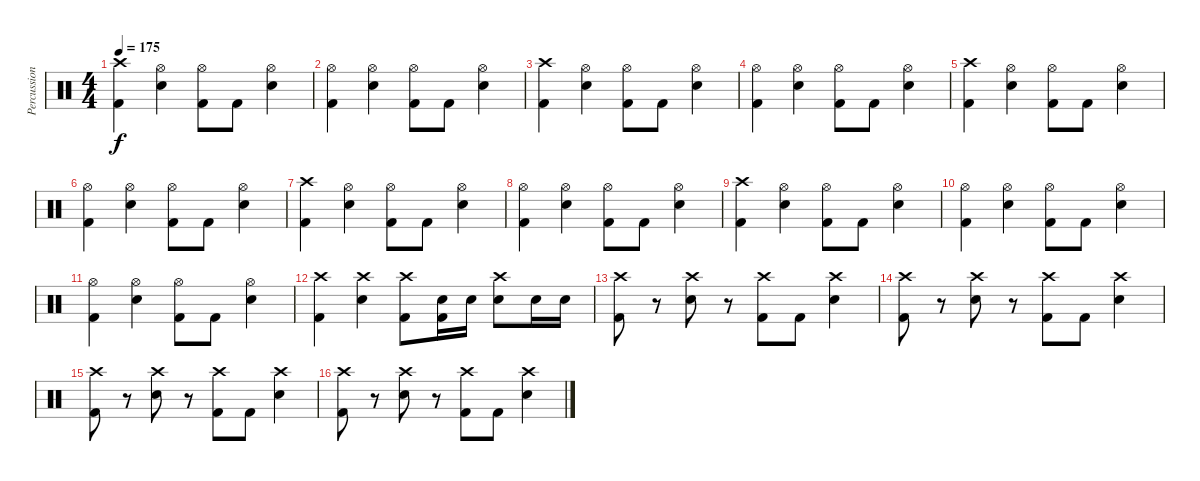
\track ("Percussion" "Percussion") {instrument percussion}
\staff {score}
\articulation defaults
\ts (4 4)
\tempo 175
\clef neutral
\ks c
("Kick (hit) 2" "Crash high (hit)").4{dy f} ("Electric Snare (hit)" "Hi-Hat (open)").4 ("Kick (hit) 2" "Hi-Hat (open)").8 "Kick (hit) 2".8 ("Electric Snare (hit)" "Hi-Hat (open)").4 |
("Kick (hit) 2" "Hi-Hat (open)").4 ("Electric Snare (hit)" "Hi-Hat (open)").4 ("Kick (hit) 2" "Hi-Hat (open)").8 "Kick (hit) 2".8 ("Electric Snare (hit)" "Hi-Hat (open)").4 |
("Kick (hit) 2" "Crash high (hit)").4 ("Electric Snare (hit)" "Hi-Hat (open)").4 ("Kick (hit) 2" "Hi-Hat (open)").8 "Kick (hit) 2".8 ("Electric Snare (hit)" "Hi-Hat (open)").4 |
("Kick (hit) 2" "Hi-Hat (open)").4 ("Electric Snare (hit)" "Hi-Hat (open)").4 ("Kick (hit) 2" "Hi-Hat (open)").8 "Kick (hit) 2".8 ("Electric Snare (hit)" "Hi-Hat (open)").4 |
("Kick (hit) 2" "Crash high (hit)").4 ("Electric Snare (hit)" "Hi-Hat (open)").4 ("Kick (hit) 2" "Hi-Hat (open)").8 "Kick (hit) 2".8 ("Electric Snare (hit)" "Hi-Hat (open)").4 |
("Kick (hit) 2" "Hi-Hat (open)").4 ("Electric Snare (hit)" "Hi-Hat (open)").4 ("Kick (hit) 2" "Hi-Hat (open)").8 "Kick (hit) 2".8 ("Electric Snare (hit)" "Hi-Hat (open)").4 |
("Kick (hit) 2" "Crash high (hit)").4 ("Electric Snare (hit)" "Hi-Hat (open)").4 ("Kick (hit) 2" "Hi-Hat (open)").8 "Kick (hit) 2".8 ("Electric Snare (hit)" "Hi-Hat (open)").4 |
("Kick (hit) 2" "Hi-Hat (open)").4 ("Electric Snare (hit)" "Hi-Hat (open)").4 ("Kick (hit) 2" "Hi-Hat (open)").8 "Kick (hit) 2".8 ("Electric Snare (hit)" "Hi-Hat (open)").4 |
("Kick (hit) 2" "Crash high (hit)").4 ("Electric Snare (hit)" "Hi-Hat (open)").4 ("Kick (hit) 2" "Hi-Hat (open)").8 "Kick (hit) 2".8 ("Electric Snare (hit)" "Hi-Hat (open)").4 |
("Kick (hit) 2" "Hi-Hat (open)").4 ("Electric Snare (hit)" "Hi-Hat (open)").4 ("Kick (hit) 2" "Hi-Hat (open)").8 "Kick (hit) 2".8 ("Electric Snare (hit)" "Hi-Hat (open)").4 |
("Kick (hit) 2" "Hi-Hat (open)").4 ("Electric Snare (hit)" "Hi-Hat (open)").4 ("Kick (hit) 2" "Hi-Hat (open)").8 "Kick (hit) 2".8 ("Electric Snare (hit)" "Hi-Hat (open)").4 |
("Kick (hit) 2" "Crash high (hit)").4 ("Electric Snare (hit)" "Crash high (hit)").4 ("Kick (hit) 2" "Crash high (hit)").8 ("Kick (hit) 2" "Electric Snare (hit)").16 "Electric Snare (hit)".16 ("Electric Snare (hit)" "Crash high (hit)").8 "Electric Snare (hit)".16 "Electric Snare (hit)".16 |
("Kick (hit) 2" "Crash high (hit)").8 r.8 ("Electric Snare (hit)" "Crash high (hit)").8 r.8 ("Kick (hit) 2" "Crash high (hit)").8 "Kick (hit) 2".8 ("Electric Snare (hit)" "Crash high (hit)").4 |
("Kick (hit) 2" "Crash high (hit)").8 r.8 ("Electric Snare (hit)" "Crash high (hit)").8 r.8 ("Kick (hit) 2" "Crash high (hit)").8 "Kick (hit) 2".8 ("Electric Snare (hit)" "Crash high (hit)").4 |
("Kick (hit) 2" "Crash high (hit)").8 r.8 ("Electric Snare (hit)" "Crash high (hit)").8 r.8 ("Kick (hit) 2" "Crash high (hit)").8 "Kick (hit) 2".8 ("Electric Snare (hit)" "Crash high (hit)").4 |
("Kick (hit) 2" "Crash high (hit)").8 r.8 ("Electric Snare (hit)" "Crash high (hit)").8 r.8 ("Kick (hit) 2" "Crash high (hit)").8 "Kick (hit) 2".8 ("Electric Snare (hit)" "Crash high (hit)").4
